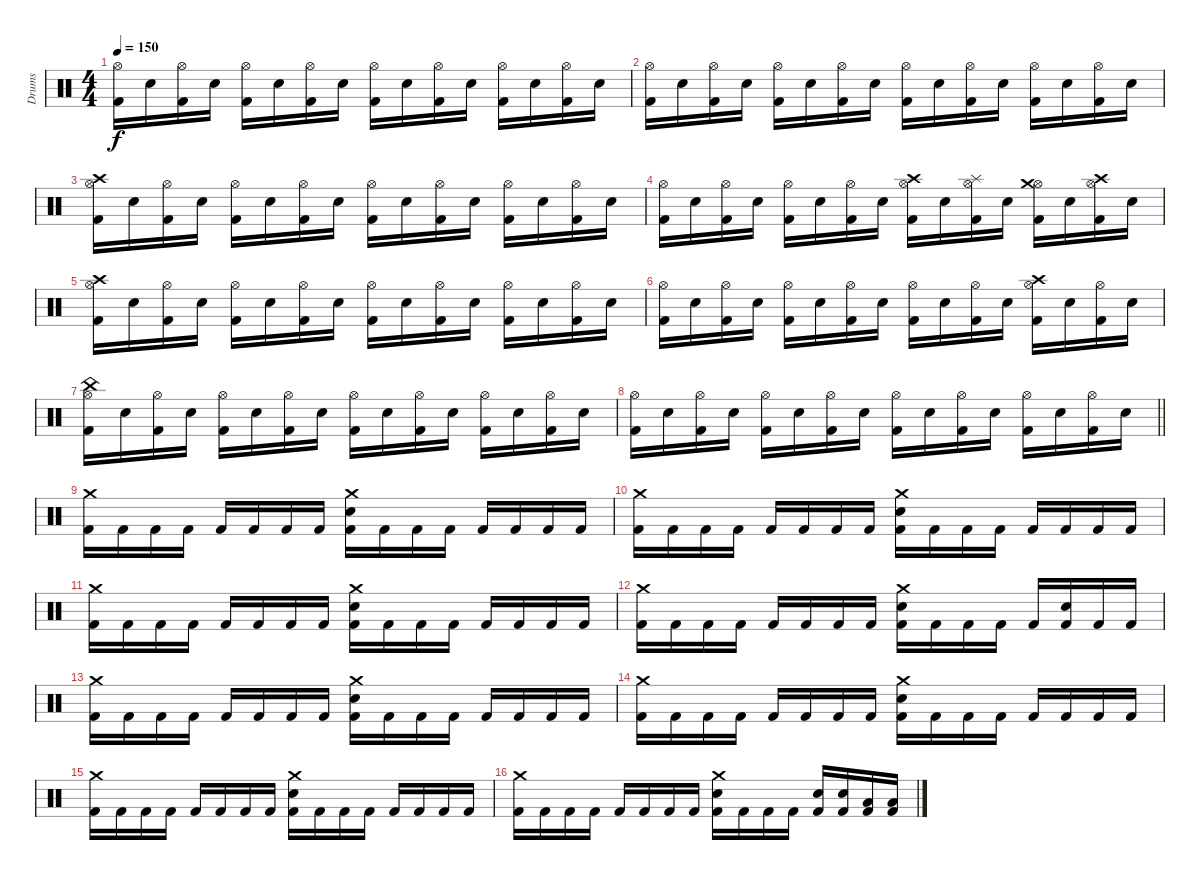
\track ("Drums" "Drums") {instrument percussion}
\staff {score}
\articulation defaults
\ts (4 4)
\tempo 150
\clef neutral
\ks c
("Hi-Hat (open)" "Kick (hit) 2").16{dy f} "Electric Snare (hit)".16 ("Hi-Hat (open)" "Kick (hit) 2").16 "Electric Snare (hit)".16 ("Hi-Hat (open)" "Kick (hit) 2").16 "Electric Snare (hit)".16 ("Hi-Hat (open)" "Kick (hit) 2").16 "Electric Snare (hit)".16 ("Hi-Hat (open)" "Kick (hit) 2").16 "Electric Snare (hit)".16 ("Hi-Hat (open)" "Kick (hit) 2").16 "Electric Snare (hit)".16 ("Hi-Hat (open)" "Kick (hit) 2").16 "Electric Snare (hit)".16 ("Hi-Hat (open)" "Kick (hit) 2").16 "Electric Snare (hit)".16 |
("Hi-Hat (open)" "Kick (hit) 2").16 "Electric Snare (hit)".16 ("Hi-Hat (open)" "Kick (hit) 2").16 "Electric Snare (hit)".16 ("Hi-Hat (open)" "Kick (hit) 2").16 "Electric Snare (hit)".16 ("Hi-Hat (open)" "Kick (hit) 2").16 "Electric Snare (hit)".16 ("Hi-Hat (open)" "Kick (hit) 2").16 "Electric Snare (hit)".16 ("Hi-Hat (open)" "Kick (hit) 2").16 "Electric Snare (hit)".16 ("Hi-Hat (open)" "Kick (hit) 2").16 "Electric Snare (hit)".16 ("Hi-Hat (open)" "Kick (hit) 2").16 "Electric Snare (hit)".16 |
("Hi-Hat (open)" "Kick (hit) 2" "Crash high (hit)").16 "Electric Snare (hit)".16 ("Hi-Hat (open)" "Kick (hit) 2").16 "Electric Snare (hit)".16 ("Hi-Hat (open)" "Kick (hit) 2").16 "Electric Snare (hit)".16 ("Hi-Hat (open)" "Kick (hit) 2").16 "Electric Snare (hit)".16 ("Hi-Hat (open)" "Kick (hit) 2").16 "Electric Snare (hit)".16 ("Hi-Hat (open)" "Kick (hit) 2").16 "Electric Snare (hit)".16 ("Hi-Hat (open)" "Kick (hit) 2").16 "Electric Snare (hit)".16 ("Hi-Hat (open)" "Kick (hit) 2").16 "Electric Snare (hit)".16 |
("Hi-Hat (open)" "Kick (hit) 2").16 "Electric Snare (hit)".16 ("Hi-Hat (open)" "Kick (hit) 2").16 "Electric Snare (hit)".16 ("Hi-Hat (open)" "Kick (hit) 2").16 "Electric Snare (hit)".16 ("Hi-Hat (open)" "Kick (hit) 2").16 "Electric Snare (hit)".16 ("Hi-Hat (open)" "Kick (hit) 2" "Crash high (hit)").16 "Electric Snare (hit)".16 ("Hi-Hat (open)" "Kick (hit) 2" "Splash (hit)").16 "Electric Snare (hit)".16 ("Hi-Hat (open)" "Kick (hit) 2" "Crash medium (hit)").16 "Electric Snare (hit)".16 ("Hi-Hat (open)" "Kick (hit) 2" "Crash high (hit)").16 "Electric Snare (hit)".16 |
("Hi-Hat (open)" "Kick (hit) 2" "Crash high (hit)").16 "Electric Snare (hit)".16 ("Hi-Hat (open)" "Kick (hit) 2").16 "Electric Snare (hit)".16 ("Hi-Hat (open)" "Kick (hit) 2").16 "Electric Snare (hit)".16 ("Hi-Hat (open)" "Kick (hit) 2").16 "Electric Snare (hit)".16 ("Hi-Hat (open)" "Kick (hit) 2").16 "Electric Snare (hit)".16 ("Hi-Hat (open)" "Kick (hit) 2").16 "Electric Snare (hit)".16 ("Hi-Hat (open)" "Kick (hit) 2").16 "Electric Snare (hit)".16 ("Hi-Hat (open)" "Kick (hit) 2").16 "Electric Snare (hit)".16 |
("Hi-Hat (open)" "Kick (hit) 2").16 "Electric Snare (hit)".16 ("Hi-Hat (open)" "Kick (hit) 2").16 "Electric Snare (hit)".16 ("Hi-Hat (open)" "Kick (hit) 2").16 "Electric Snare (hit)".16 ("Hi-Hat (open)" "Kick (hit) 2").16 "Electric Snare (hit)".16 ("Hi-Hat (open)" "Kick (hit) 2").16 "Electric Snare (hit)".16 ("Hi-Hat (open)" "Kick (hit) 2").16 "Electric Snare (hit)".16 ("Hi-Hat (open)" "Kick (hit) 2" "Crash high (hit)").16 "Electric Snare (hit)".16 ("Hi-Hat (open)" "Kick (hit) 2").16 "Electric Snare (hit)".16 |
("Hi-Hat (open)" "Kick (hit) 2" "China (hit)").16 "Electric Snare (hit)".16 ("Hi-Hat (open)" "Kick (hit) 2").16 "Electric Snare (hit)".16 ("Hi-Hat (open)" "Kick (hit) 2").16 "Electric Snare (hit)".16 ("Hi-Hat (open)" "Kick (hit) 2").16 "Electric Snare (hit)".16 ("Hi-Hat (open)" "Kick (hit) 2").16 "Electric Snare (hit)".16 ("Hi-Hat (open)" "Kick (hit) 2").16 "Electric Snare (hit)".16 ("Hi-Hat (open)" "Kick (hit) 2").16 "Electric Snare (hit)".16 ("Hi-Hat (open)" "Kick (hit) 2").16 "Electric Snare (hit)".16 |
\barLineRight lightlight
("Hi-Hat (open)" "Kick (hit) 2").16 "Electric Snare (hit)".16 ("Hi-Hat (open)" "Kick (hit) 2").16 "Electric Snare (hit)".16 ("Hi-Hat (open)" "Kick (hit) 2").16 "Electric Snare (hit)".16 ("Hi-Hat (open)" "Kick (hit) 2").16 "Electric Snare (hit)".16 ("Hi-Hat (open)" "Kick (hit) 2").16 "Electric Snare (hit)".16 ("Hi-Hat (open)" "Kick (hit) 2").16 "Electric Snare (hit)".16 ("Hi-Hat (open)" "Kick (hit) 2").16 "Electric Snare (hit)".16 ("Hi-Hat (open)" "Kick (hit) 2").16 "Electric Snare (hit)".16 |
("Crash medium (hit)" "Kick (hit) 2").16 "Kick (hit) 2".16 "Kick (hit) 2".16 "Kick (hit) 2".16 "Kick (hit) 2".16 "Kick (hit) 2".16 "Kick (hit) 2".16 "Kick (hit) 2".16 ("Kick (hit) 2" "Crash medium (hit)" "Electric Snare (hit)").16 "Kick (hit) 2".16 "Kick (hit) 2".16 "Kick (hit) 2".16 "Kick (hit) 2".16 "Kick (hit) 2".16 "Kick (hit) 2".16 "Kick (hit) 2".16 |
("Crash medium (hit)" "Kick (hit) 2").16 "Kick (hit) 2".16 "Kick (hit) 2".16 "Kick (hit) 2".16 "Kick (hit) 2".16 "Kick (hit) 2".16 "Kick (hit) 2".16 "Kick (hit) 2".16 ("Kick (hit) 2" "Crash medium (hit)" "Electric Snare (hit)").16 "Kick (hit) 2".16 "Kick (hit) 2".16 "Kick (hit) 2".16 "Kick (hit) 2".16 "Kick (hit) 2".16 "Kick (hit) 2".16 "Kick (hit) 2".16 |
("Crash medium (hit)" "Kick (hit) 2").16 "Kick (hit) 2".16 "Kick (hit) 2".16 "Kick (hit) 2".16 "Kick (hit) 2".16 "Kick (hit) 2".16 "Kick (hit) 2".16 "Kick (hit) 2".16 ("Kick (hit) 2" "Crash medium (hit)" "Electric Snare (hit)").16 "Kick (hit) 2".16 "Kick (hit) 2".16 "Kick (hit) 2".16 "Kick (hit) 2".16 "Kick (hit) 2".16 "Kick (hit) 2".16 "Kick (hit) 2".16 |
("Crash medium (hit)" "Kick (hit) 2").16 "Kick (hit) 2".16 "Kick (hit) 2".16 "Kick (hit) 2".16 "Kick (hit) 2".16 "Kick (hit) 2".16 "Kick (hit) 2".16 "Kick (hit) 2".16 ("Kick (hit) 2" "Crash medium (hit)" "Electric Snare (hit)").16 "Kick (hit) 2".16 "Kick (hit) 2".16 "Kick (hit) 2".16 "Kick (hit) 2".16 ("Kick (hit) 2" "Electric Snare (hit)").16 "Kick (hit) 2".16 "Kick (hit) 2".16 |
("Crash medium (hit)" "Kick (hit) 2").16 "Kick (hit) 2".16 "Kick (hit) 2".16 "Kick (hit) 2".16 "Kick (hit) 2".16 "Kick (hit) 2".16 "Kick (hit) 2".16 "Kick (hit) 2".16 ("Kick (hit) 2" "Crash medium (hit)" "Electric Snare (hit)").16 "Kick (hit) 2".16 "Kick (hit) 2".16 "Kick (hit) 2".16 "Kick (hit) 2".16 "Kick (hit) 2".16 "Kick (hit) 2".16 "Kick (hit) 2".16 |
("Crash medium (hit)" "Kick (hit) 2").16 "Kick (hit) 2".16 "Kick (hit) 2".16 "Kick (hit) 2".16 "Kick (hit) 2".16 "Kick (hit) 2".16 "Kick (hit) 2".16 "Kick (hit) 2".16 ("Kick (hit) 2" "Crash medium (hit)" "Electric Snare (hit)").16 "Kick (hit) 2".16 "Kick (hit) 2".16 "Kick (hit) 2".16 "Kick (hit) 2".16 "Kick (hit) 2".16 "Kick (hit) 2".16 "Kick (hit) 2".16 |
("Crash medium (hit)" "Kick (hit) 2").16 "Kick (hit) 2".16 "Kick (hit) 2".16 "Kick (hit) 2".16 "Kick (hit) 2".16 "Kick (hit) 2".16 "Kick (hit) 2".16 "Kick (hit) 2".16 ("Kick (hit) 2" "Crash medium (hit)" "Electric Snare (hit)").16 "Kick (hit) 2".16 "Kick (hit) 2".16 "Kick (hit) 2".16 "Kick (hit) 2".16 "Kick (hit) 2".16 "Kick (hit) 2".16 "Kick (hit) 2".16 |
("Crash medium (hit)" "Kick (hit) 2").16 "Kick (hit) 2".16 "Kick (hit) 2".16 "Kick (hit) 2".16 "Kick (hit) 2".16 "Kick (hit) 2".16 "Kick (hit) 2".16 "Kick (hit) 2".16 ("Kick (hit) 2" "Crash medium (hit)" "Electric Snare (hit)").16 "Kick (hit) 2".16 "Kick (hit) 2".16 "Kick (hit) 2".16 ("Kick (hit) 2" "Electric Snare (hit)").16 ("Kick (hit) 2" "Electric Snare (hit)").16 ("Kick (hit) 2" "Low Tom (hit)").16 ("Kick (hit) 2" "Low Tom (hit)").16
